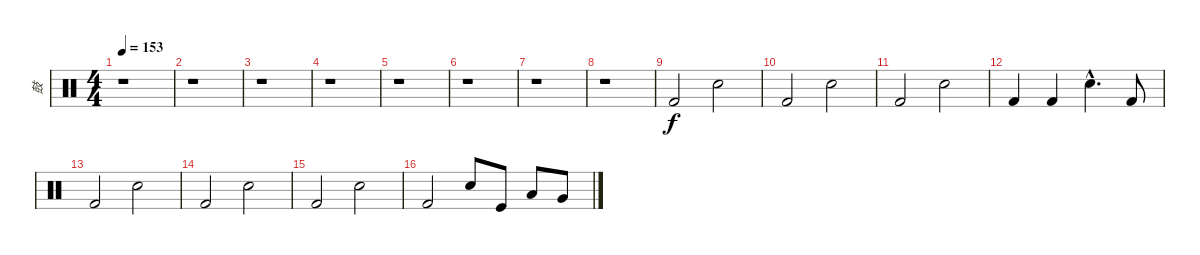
\track ("鼓" "鼓") {instrument percussion}
\staff {score}
\articulation defaults
\ts (4 4)
\tempo 153
\clef neutral
\ks c
r.1{dy f} |
r.1 |
r.1 |
r.1 |
r.1 |
r.1 |
r.1 |
r.1 |
"Kick (hit) 2".2 "Electric Snare (hit)".2 |
"Kick (hit) 2".2 "Electric Snare (hit)".2 |
"Kick (hit) 2".2 "Electric Snare (hit)".2 |
"Kick (hit) 2".4 "Kick (hit) 2".4 "Electric Snare (hit)"{hac}.4{d} "Kick (hit) 2".8 |
"Kick (hit) 2".2 "Electric Snare (hit)".2 |
"Kick (hit) 2".2 "Electric Snare (hit)".2 |
"Kick (hit) 2".2 "Electric Snare (hit)".2 |
"Kick (hit) 2".2 "Snare (hit) 2".8 "Kick (hit)".8 "Low Tom (hit)".8 "Very Low Tom (hit)".8
